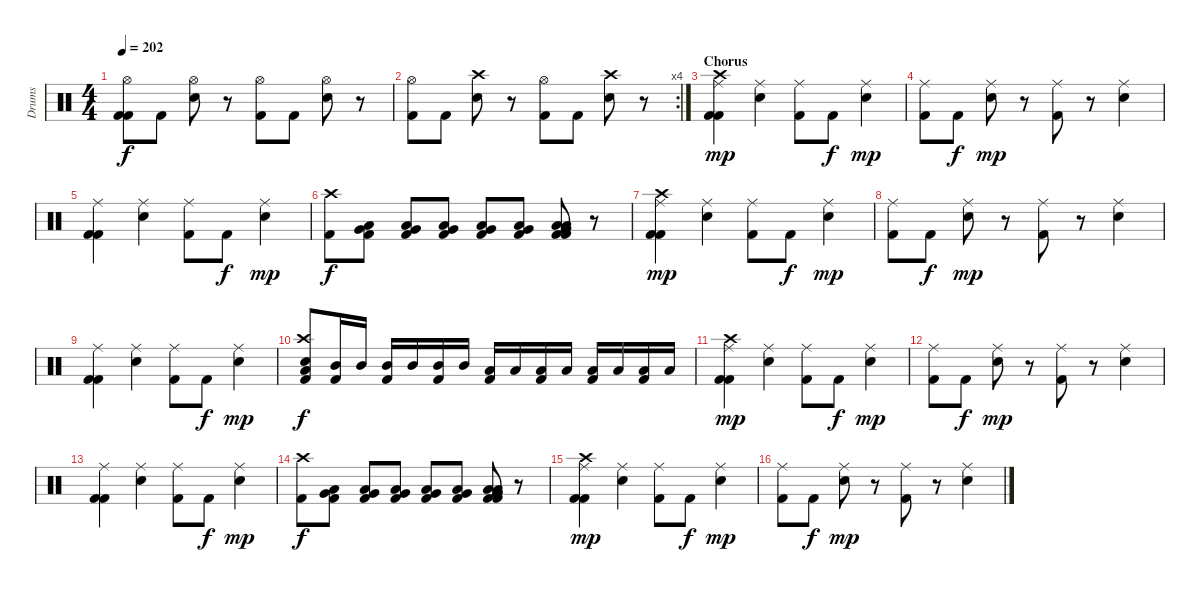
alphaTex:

\track ("Drums" "Drums") {instrument percussion}
\staff {score}
\articulation defaults
\ts (4 4)
\tempo 202
\clef neutral
\ks c
("Hi-Hat (open)" "Kick (hit) 2" "Kick (hit) 2").8{dy f} "Kick (hit) 2".8 ("Hi-Hat (open)" "Electric Snare (hit)").8 r.8 ("Hi-Hat (open)" "Kick (hit) 2").8 "Kick (hit) 2".8 ("Hi-Hat (open)" "Electric Snare (hit)").8 r.8 |
\rc 4
("Hi-Hat (open)" "Kick (hit) 2").8 "Kick (hit) 2".8 ("Crash high (hit)" "Electric Snare (hit)").8 r.8 ("Hi-Hat (open)" "Kick (hit) 2").8 "Kick (hit) 2".8 ("Crash high (hit)" "Electric Snare (hit)").8 r.8 |
\section ("" "Chorus")
("Crash high (hit)" "Ride (middle)" "Kick (hit) 2" "Kick (hit) 2").4{dy mp} ("Ride (middle)" "Electric Snare (hit)").4 ("Ride (middle)" "Kick (hit) 2").8 "Kick (hit) 2".8{dy f} ("Ride (middle)" "Electric Snare (hit)").4{dy mp} |
("Ride (middle)" "Kick (hit) 2").8 "Kick (hit) 2".8{dy f} ("Ride (middle)" "Electric Snare (hit)").8{dy mp} r.8 ("Ride (middle)" "Kick (hit) 2").8 r.8 ("Ride (middle)" "Electric Snare (hit)").4 |
("Ride (middle)" "Kick (hit) 2" "Kick (hit) 2").4 ("Ride (middle)" "Electric Snare (hit)").4 ("Ride (middle)" "Kick (hit) 2").8 "Kick (hit) 2".8{dy f} ("Ride (middle)" "Electric Snare (hit)").4{dy mp} |
("Crash high (hit)" "Kick (hit) 2").8{dy f} ("Low Tom (hit)" "Very Low Tom (hit)" "Kick (hit) 2").8 ("Low Tom (hit)" "Very Low Tom (hit)" "Kick (hit) 2").8 ("Low Tom (hit)" "Very Low Tom (hit)" "Kick (hit) 2").8 ("Low Tom (hit)" "Very Low Tom (hit)" "Kick (hit) 2").8 ("Low Tom (hit)" "Very Low Tom (hit)" "Kick (hit) 2").8 ("Low Tom (hit)" "Low Tom (hit)" "Very Low Tom (hit)" "Very Low Tom (hit)" "Kick (hit) 2" "Kick (hit) 2").8 r.8 |
("Crash high (hit)" "Ride (middle)" "Kick (hit) 2" "Kick (hit) 2").4{dy mp} ("Ride (middle)" "Electric Snare (hit)").4 ("Ride (middle)" "Kick (hit) 2").8 "Kick (hit) 2".8{dy f} ("Ride (middle)" "Electric Snare (hit)").4{dy mp} |
("Ride (middle)" "Kick (hit) 2").8 "Kick (hit) 2".8{dy f} ("Ride (middle)" "Electric Snare (hit)").8{dy mp} r.8 ("Ride (middle)" "Kick (hit) 2").8 r.8 ("Ride (middle)" "Electric Snare (hit)").4 |
("Ride (middle)" "Kick (hit) 2" "Kick (hit) 2").4 ("Ride (middle)" "Electric Snare (hit)").4 ("Ride (middle)" "Kick (hit) 2").8 "Kick (hit) 2".8{dy f} ("Ride (middle)" "Electric Snare (hit)").4{dy mp} |
("Crash high (hit)" "Low Tom (hit)" "Electric Snare (hit)" "Kick (hit) 2").8{dy f} ("Mid Tom (hit)" "Kick (hit) 2").16 "Mid Tom (hit)".16 ("Mid Tom (hit)" "Kick (hit) 2").16 "Mid Tom (hit)".16 ("Mid Tom (hit)" "Kick (hit) 2").16 "Mid Tom (hit)".16 ("Low Tom (hit)" "Kick (hit) 2").16 "Low Tom (hit)".16 ("Low Tom (hit)" "Kick (hit) 2").16 "Low Tom (hit)".16 ("Low Tom (hit)" "Kick (hit) 2").16 "Low Tom (hit)".16 ("Low Tom (hit)" "Kick (hit) 2").16 "Low Tom (hit)".16 |
("Crash high (hit)" "Ride (middle)" "Kick (hit) 2" "Kick (hit) 2").4{dy mp} ("Ride (middle)" "Electric Snare (hit)").4 ("Ride (middle)" "Kick (hit) 2").8 "Kick (hit) 2".8{dy f} ("Ride (middle)" "Electric Snare (hit)").4{dy mp} |
("Ride (middle)" "Kick (hit) 2").8 "Kick (hit) 2".8{dy f} ("Ride (middle)" "Electric Snare (hit)").8{dy mp} r.8 ("Ride (middle)" "Kick (hit) 2").8 r.8 ("Ride (middle)" "Electric Snare (hit)").4 |
("Ride (middle)" "Kick (hit) 2" "Kick (hit) 2").4 ("Ride (middle)" "Electric Snare (hit)").4 ("Ride (middle)" "Kick (hit) 2").8 "Kick (hit) 2".8{dy f} ("Ride (middle)" "Electric Snare (hit)").4{dy mp} |
("Crash high (hit)" "Kick (hit) 2").8{dy f} ("Low Tom (hit)" "Very Low Tom (hit)" "Kick (hit) 2").8 ("Low Tom (hit)" "Very Low Tom (hit)" "Kick (hit) 2").8 ("Low Tom (hit)" "Very Low Tom (hit)" "Kick (hit) 2").8 ("Low Tom (hit)" "Very Low Tom (hit)" "Kick (hit) 2").8 ("Low Tom (hit)" "Very Low Tom (hit)" "Kick (hit) 2").8 ("Low Tom (hit)" "Low Tom (hit)" "Very Low Tom (hit)" "Very Low Tom (hit)" "Kick (hit) 2" "Kick (hit) 2").8 r.8 |
("Crash high (hit)" "Ride (middle)" "Kick (hit) 2" "Kick (hit) 2").4{dy mp} ("Ride (middle)" "Electric Snare (hit)").4 ("Ride (middle)" "Kick (hit) 2").8 "Kick (hit) 2".8{dy f} ("Ride (middle)" "Electric Snare (hit)").4{dy mp} |
("Ride (middle)" "Kick (hit) 2").8 "Kick (hit) 2".8{dy f} ("Ride (middle)" "Electric Snare (hit)").8{dy mp} r.8 ("Ride (middle)" "Kick (hit) 2").8 r.8 ("Ride (middle)" "Electric Snare (hit)").4
